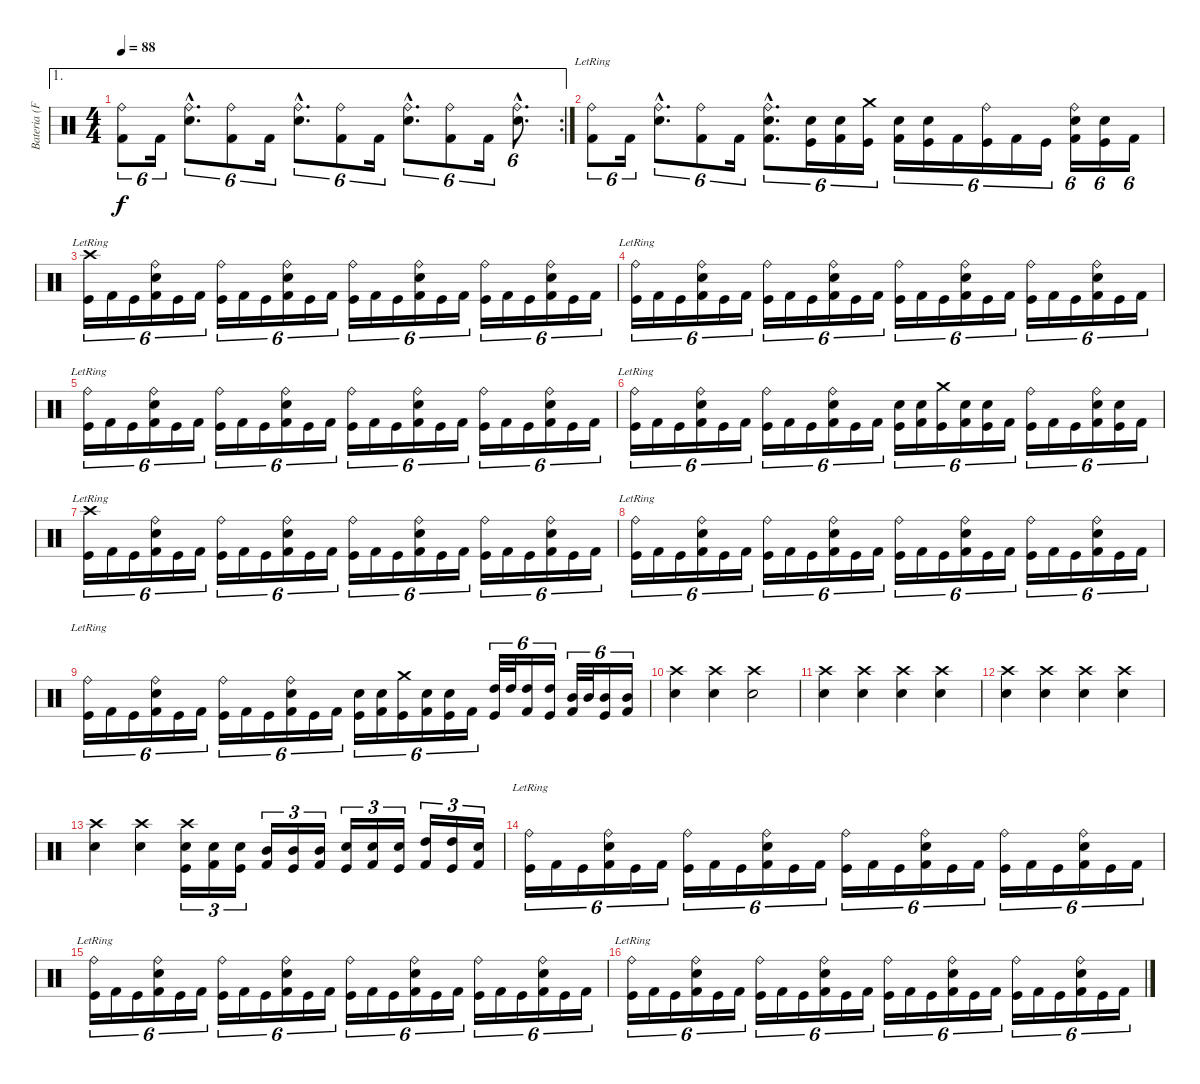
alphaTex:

\track ("Bateria (Fernando Scarcella)" "Bateria (F") {instrument percussion}
\staff {score}
\articulation defaults
\ae 1
\rc 2
\ts (4 4)
\tempo 88
\clef neutral
\ks c
("Ride (bell)" "Kick (hit) 2").8{tu (6 4) dy f} "Kick (hit) 2".16{tu (6 4)} ("Ride (bell)"{hac} "Snare (hit) 2"{hac}).8{d tu (6 4)} ("Ride (bell)" "Kick (hit) 2").8{tu (6 4)} "Kick (hit) 2".16{tu (6 4)} ("Ride (bell)"{hac} "Snare (hit) 2"{hac}).8{d tu (6 4)} ("Ride (bell)" "Kick (hit) 2").8{tu (6 4)} "Kick (hit) 2".16{tu (6 4)} ("Ride (bell)"{hac} "Snare (hit) 2"{hac}).8{d tu (6 4)} ("Ride (bell)" "Kick (hit) 2").8{tu (6 4)} "Kick (hit) 2".16{tu (6 4)} ("Ride (bell)"{hac} "Snare (hit) 2"{hac}).8{d tu (6 4)} |
("Ride (bell)"{lr} "Kick (hit) 2").8{tu (6 4)} "Kick (hit) 2".16{tu (6 4)} ("Ride (bell)"{hac} "Snare (hit) 2"{hac}).8{d tu (6 4)} ("Ride (bell)" "Kick (hit) 2").8{tu (6 4)} "Kick (hit) 2".16{tu (6 4)} ("Ride (bell)"{hac} "Snare (hit) 2"{hac} "Kick (hit) 2"{hac}).8{d tu (6 4)} ("Snare (hit) 2" "Kick (hit)").16{tu (6 4)} ("Snare (hit) 2" "Kick (hit) 2").16{tu (6 4)} ("Crash medium (hit)" "Kick (hit)").16{tu (6 4)} ("Snare (hit) 2" "Kick (hit) 2").16{tu (6 4)} ("Snare (hit) 2" "Kick (hit)").16{tu (6 4)} "Kick (hit) 2".16{tu (6 4)} ("Ride (bell)" "Kick (hit)").16{tu (6 4)} "Kick (hit) 2".16{tu (6 4)} "Kick (hit)".16{tu (6 4)} ("Ride (bell)" "Snare (hit) 2" "Kick (hit) 2").16{tu (6 4)} ("Snare (hit) 2" "Kick (hit)").16{tu (6 4)} "Kick (hit) 2".16{tu (6 4)} |
("Crash high (hit)"{lr} "Kick (hit)").16{tu (6 4)} "Kick (hit) 2".16{tu (6 4)} "Kick (hit)".16{tu (6 4)} ("Ride (bell)" "Snare (hit) 2" "Kick (hit) 2").16{tu (6 4)} "Kick (hit)".16{tu (6 4)} "Kick (hit) 2".16{tu (6 4)} ("Ride (bell)" "Kick (hit)").16{tu (6 4)} "Kick (hit) 2".16{tu (6 4)} "Kick (hit)".16{tu (6 4)} ("Ride (bell)" "Snare (hit) 2" "Kick (hit) 2").16{tu (6 4)} "Kick (hit)".16{tu (6 4)} "Kick (hit) 2".16{tu (6 4)} ("Ride (bell)" "Kick (hit)").16{tu (6 4)} "Kick (hit) 2".16{tu (6 4)} "Kick (hit)".16{tu (6 4)} ("Ride (bell)" "Snare (hit) 2" "Kick (hit) 2").16{tu (6 4)} "Kick (hit)".16{tu (6 4)} "Kick (hit) 2".16{tu (6 4)} ("Ride (bell)" "Kick (hit)").16{tu (6 4)} "Kick (hit) 2".16{tu (6 4)} "Kick (hit)".16{tu (6 4)} ("Ride (bell)" "Snare (hit) 2" "Kick (hit) 2").16{tu (6 4)} "Kick (hit)".16{tu (6 4)} "Kick (hit) 2".16{tu (6 4)} |
("Ride (bell)"{lr} "Kick (hit)").16{tu (6 4)} "Kick (hit) 2".16{tu (6 4)} "Kick (hit)".16{tu (6 4)} ("Ride (bell)" "Snare (hit) 2" "Kick (hit) 2").16{tu (6 4)} "Kick (hit)".16{tu (6 4)} "Kick (hit) 2".16{tu (6 4)} ("Ride (bell)" "Kick (hit)").16{tu (6 4)} "Kick (hit) 2".16{tu (6 4)} "Kick (hit)".16{tu (6 4)} ("Ride (bell)" "Snare (hit) 2" "Kick (hit) 2").16{tu (6 4)} "Kick (hit)".16{tu (6 4)} "Kick (hit) 2".16{tu (6 4)} ("Ride (bell)" "Kick (hit)").16{tu (6 4)} "Kick (hit) 2".16{tu (6 4)} "Kick (hit)".16{tu (6 4)} ("Ride (bell)" "Snare (hit) 2" "Kick (hit) 2").16{tu (6 4)} "Kick (hit)".16{tu (6 4)} "Kick (hit) 2".16{tu (6 4)} ("Ride (bell)" "Kick (hit)").16{tu (6 4)} "Kick (hit) 2".16{tu (6 4)} "Kick (hit)".16{tu (6 4)} ("Ride (bell)" "Snare (hit) 2" "Kick (hit) 2").16{tu (6 4)} "Kick (hit)".16{tu (6 4)} "Kick (hit) 2".16{tu (6 4)} |
("Ride (bell)"{lr} "Kick (hit)").16{tu (6 4)} "Kick (hit) 2".16{tu (6 4)} "Kick (hit)".16{tu (6 4)} ("Ride (bell)" "Snare (hit) 2" "Kick (hit) 2").16{tu (6 4)} "Kick (hit)".16{tu (6 4)} "Kick (hit) 2".16{tu (6 4)} ("Ride (bell)" "Kick (hit)").16{tu (6 4)} "Kick (hit) 2".16{tu (6 4)} "Kick (hit)".16{tu (6 4)} ("Ride (bell)" "Snare (hit) 2" "Kick (hit) 2").16{tu (6 4)} "Kick (hit)".16{tu (6 4)} "Kick (hit) 2".16{tu (6 4)} ("Ride (bell)" "Kick (hit)").16{tu (6 4)} "Kick (hit) 2".16{tu (6 4)} "Kick (hit)".16{tu (6 4)} ("Ride (bell)" "Snare (hit) 2" "Kick (hit) 2").16{tu (6 4)} "Kick (hit)".16{tu (6 4)} "Kick (hit) 2".16{tu (6 4)} ("Ride (bell)" "Kick (hit)").16{tu (6 4)} "Kick (hit) 2".16{tu (6 4)} "Kick (hit)".16{tu (6 4)} ("Ride (bell)" "Snare (hit) 2" "Kick (hit) 2").16{tu (6 4)} "Kick (hit)".16{tu (6 4)} "Kick (hit) 2".16{tu (6 4)} |
("Ride (bell)"{lr} "Kick (hit)").16{tu (6 4)} "Kick (hit) 2".16{tu (6 4)} "Kick (hit)".16{tu (6 4)} ("Ride (bell)" "Snare (hit) 2" "Kick (hit) 2").16{tu (6 4)} "Kick (hit)".16{tu (6 4)} "Kick (hit) 2".16{tu (6 4)} ("Ride (bell)" "Kick (hit)").16{tu (6 4)} "Kick (hit) 2".16{tu (6 4)} "Kick (hit)".16{tu (6 4)} ("Ride (bell)" "Snare (hit) 2" "Kick (hit) 2").16{tu (6 4)} "Kick (hit)".16{tu (6 4)} "Kick (hit) 2".16{tu (6 4)} ("Snare (hit) 2" "Kick (hit)").16{tu (6 4)} ("Snare (hit) 2" "Kick (hit) 2").16{tu (6 4)} ("Crash medium (hit)" "Kick (hit)").16{tu (6 4)} ("Snare (hit) 2" "Kick (hit) 2").16{tu (6 4)} ("Snare (hit) 2" "Kick (hit)").16{tu (6 4)} "Kick (hit) 2".16{tu (6 4)} ("Ride (bell)" "Kick (hit)").16{tu (6 4)} "Kick (hit) 2".16{tu (6 4)} "Kick (hit)".16{tu (6 4)} ("Ride (bell)" "Snare (hit) 2" "Kick (hit) 2").16{tu (6 4)} ("Snare (hit) 2" "Kick (hit)").16{tu (6 4)} "Kick (hit) 2".16{tu (6 4)} |
("Crash high (hit)"{lr} "Kick (hit)").16{tu (6 4)} "Kick (hit) 2".16{tu (6 4)} "Kick (hit)".16{tu (6 4)} ("Ride (bell)" "Snare (hit) 2" "Kick (hit) 2").16{tu (6 4)} "Kick (hit)".16{tu (6 4)} "Kick (hit) 2".16{tu (6 4)} ("Ride (bell)" "Kick (hit)").16{tu (6 4)} "Kick (hit) 2".16{tu (6 4)} "Kick (hit)".16{tu (6 4)} ("Ride (bell)" "Snare (hit) 2" "Kick (hit) 2").16{tu (6 4)} "Kick (hit)".16{tu (6 4)} "Kick (hit) 2".16{tu (6 4)} ("Ride (bell)" "Kick (hit)").16{tu (6 4)} "Kick (hit) 2".16{tu (6 4)} "Kick (hit)".16{tu (6 4)} ("Ride (bell)" "Snare (hit) 2" "Kick (hit) 2").16{tu (6 4)} "Kick (hit)".16{tu (6 4)} "Kick (hit) 2".16{tu (6 4)} ("Ride (bell)" "Kick (hit)").16{tu (6 4)} "Kick (hit) 2".16{tu (6 4)} "Kick (hit)".16{tu (6 4)} ("Ride (bell)" "Snare (hit) 2" "Kick (hit) 2").16{tu (6 4)} "Kick (hit)".16{tu (6 4)} "Kick (hit) 2".16{tu (6 4)} |
("Ride (bell)"{lr} "Kick (hit)").16{tu (6 4)} "Kick (hit) 2".16{tu (6 4)} "Kick (hit)".16{tu (6 4)} ("Ride (bell)" "Snare (hit) 2" "Kick (hit) 2").16{tu (6 4)} "Kick (hit)".16{tu (6 4)} "Kick (hit) 2".16{tu (6 4)} ("Ride (bell)" "Kick (hit)").16{tu (6 4)} "Kick (hit) 2".16{tu (6 4)} "Kick (hit)".16{tu (6 4)} ("Ride (bell)" "Snare (hit) 2" "Kick (hit) 2").16{tu (6 4)} "Kick (hit)".16{tu (6 4)} "Kick (hit) 2".16{tu (6 4)} ("Ride (bell)" "Kick (hit)").16{tu (6 4)} "Kick (hit) 2".16{tu (6 4)} "Kick (hit)".16{tu (6 4)} ("Ride (bell)" "Snare (hit) 2" "Kick (hit) 2").16{tu (6 4)} "Kick (hit)".16{tu (6 4)} "Kick (hit) 2".16{tu (6 4)} ("Ride (bell)" "Kick (hit)").16{tu (6 4)} "Kick (hit) 2".16{tu (6 4)} "Kick (hit)".16{tu (6 4)} ("Ride (bell)" "Snare (hit) 2" "Kick (hit) 2").16{tu (6 4)} "Kick (hit)".16{tu (6 4)} "Kick (hit) 2".16{tu (6 4)} |
("Ride (bell)"{lr} "Kick (hit)").16{tu (6 4)} "Kick (hit) 2".16{tu (6 4)} "Kick (hit)".16{tu (6 4)} ("Ride (bell)" "Snare (hit) 2" "Kick (hit) 2").16{tu (6 4)} "Kick (hit)".16{tu (6 4)} "Kick (hit) 2".16{tu (6 4)} ("Ride (bell)" "Kick (hit)").16{tu (6 4)} "Kick (hit) 2".16{tu (6 4)} "Kick (hit)".16{tu (6 4)} ("Ride (bell)" "Snare (hit) 2" "Kick (hit) 2").16{tu (6 4)} "Kick (hit)".16{tu (6 4)} "Kick (hit) 2".16{tu (6 4)} ("Snare (hit) 2" "Kick (hit)").16{tu (6 4)} ("Snare (hit) 2" "Kick (hit) 2").16{tu (6 4)} ("Crash medium (hit)" "Kick (hit)").16{tu (6 4)} ("Snare (hit) 2" "Kick (hit) 2").16{tu (6 4)} ("Snare (hit) 2" "Kick (hit)").16{tu (6 4)} "Kick (hit) 2".16{tu (6 4)} ("High Tom (hit)" "Kick (hit)").32{tu (6 4)} "High Tom (hit)".32{tu (6 4)} ("High Tom (hit)" "Kick (hit) 2").16{tu (6 4)} ("High Tom (hit)" "Kick (hit)").16{tu (6 4)} ("Mid Tom (hit)" "Kick (hit) 2").32{tu (6 4)} "Mid Tom (hit)".32{tu (6 4)} ("Mid Tom (hit)" "Kick (hit)").16{tu (6 4)} ("Mid Tom (hit)" "Kick (hit) 2").16{tu (6 4)} |
("Crash high (hit)" "Snare (hit) 2").4 ("Crash high (hit)" "Snare (hit) 2").4 ("Crash high (hit)" "Snare (hit) 2").2 |
("Crash high (hit)" "Snare (hit) 2").4 ("Crash high (hit)" "Snare (hit) 2").4 ("Crash high (hit)" "Snare (hit) 2").4 ("Crash high (hit)" "Snare (hit) 2").4 |
("Crash high (hit)" "Snare (hit) 2").4 ("Crash high (hit)" "Snare (hit) 2").4 ("Crash high (hit)" "Snare (hit) 2").4 ("Crash high (hit)" "Snare (hit) 2").4 |
("Crash high (hit)" "Snare (hit) 2").4 ("Crash high (hit)" "Snare (hit) 2").4 ("Crash high (hit)" "Snare (hit) 2" "Kick (hit)").16{tu (3 2)} ("Snare (hit) 2" "Kick (hit) 2").16{tu (3 2)} ("Snare (hit) 2" "Kick (hit)").16{tu (3 2)} ("Mid Tom (hit)" "Kick (hit) 2").16{tu (3 2)} ("Mid Tom (hit)" "Kick (hit)").16{tu (3 2)} ("Mid Tom (hit)" "Kick (hit) 2").16{tu (3 2)} ("Snare (hit) 2" "Kick (hit)").16{tu (3 2)} ("Snare (hit) 2" "Kick (hit) 2").16{tu (3 2)} ("Snare (hit) 2" "Kick (hit)").16{tu (3 2)} ("High Tom (hit)" "Kick (hit) 2").16{tu (3 2)} ("High Tom (hit)" "Kick (hit)").16{tu (3 2)} ("Snare (hit) 2" "Kick (hit) 2").16{tu (3 2)} |
("Ride (bell)"{lr} "Kick (hit)").16{tu (6 4)} "Kick (hit) 2".16{tu (6 4)} "Kick (hit)".16{tu (6 4)} ("Ride (bell)" "Snare (hit) 2" "Kick (hit) 2").16{tu (6 4)} "Kick (hit)".16{tu (6 4)} "Kick (hit) 2".16{tu (6 4)} ("Ride (bell)" "Kick (hit)").16{tu (6 4)} "Kick (hit) 2".16{tu (6 4)} "Kick (hit)".16{tu (6 4)} ("Ride (bell)" "Snare (hit) 2" "Kick (hit) 2").16{tu (6 4)} "Kick (hit)".16{tu (6 4)} "Kick (hit) 2".16{tu (6 4)} ("Ride (bell)" "Kick (hit)").16{tu (6 4)} "Kick (hit) 2".16{tu (6 4)} "Kick (hit)".16{tu (6 4)} ("Ride (bell)" "Snare (hit) 2" "Kick (hit) 2").16{tu (6 4)} "Kick (hit)".16{tu (6 4)} "Kick (hit) 2".16{tu (6 4)} ("Ride (bell)" "Kick (hit)").16{tu (6 4)} "Kick (hit) 2".16{tu (6 4)} "Kick (hit)".16{tu (6 4)} ("Ride (bell)" "Snare (hit) 2" "Kick (hit) 2").16{tu (6 4)} "Kick (hit)".16{tu (6 4)} "Kick (hit) 2".16{tu (6 4)} |
("Ride (bell)"{lr} "Kick (hit)").16{tu (6 4)} "Kick (hit) 2".16{tu (6 4)} "Kick (hit)".16{tu (6 4)} ("Ride (bell)" "Snare (hit) 2" "Kick (hit) 2").16{tu (6 4)} "Kick (hit)".16{tu (6 4)} "Kick (hit) 2".16{tu (6 4)} ("Ride (bell)" "Kick (hit)").16{tu (6 4)} "Kick (hit) 2".16{tu (6 4)} "Kick (hit)".16{tu (6 4)} ("Ride (bell)" "Snare (hit) 2" "Kick (hit) 2").16{tu (6 4)} "Kick (hit)".16{tu (6 4)} "Kick (hit) 2".16{tu (6 4)} ("Ride (bell)" "Kick (hit)").16{tu (6 4)} "Kick (hit) 2".16{tu (6 4)} "Kick (hit)".16{tu (6 4)} ("Ride (bell)" "Snare (hit) 2" "Kick (hit) 2").16{tu (6 4)} "Kick (hit)".16{tu (6 4)} "Kick (hit) 2".16{tu (6 4)} ("Ride (bell)" "Kick (hit)").16{tu (6 4)} "Kick (hit) 2".16{tu (6 4)} "Kick (hit)".16{tu (6 4)} ("Ride (bell)" "Snare (hit) 2" "Kick (hit) 2").16{tu (6 4)} "Kick (hit)".16{tu (6 4)} "Kick (hit) 2".16{tu (6 4)} |
("Ride (bell)"{lr} "Kick (hit)").16{tu (6 4)} "Kick (hit) 2".16{tu (6 4)} "Kick (hit)".16{tu (6 4)} ("Ride (bell)" "Snare (hit) 2" "Kick (hit) 2").16{tu (6 4)} "Kick (hit)".16{tu (6 4)} "Kick (hit) 2".16{tu (6 4)} ("Ride (bell)" "Kick (hit)").16{tu (6 4)} "Kick (hit) 2".16{tu (6 4)} "Kick (hit)".16{tu (6 4)} ("Ride (bell)" "Snare (hit) 2" "Kick (hit) 2").16{tu (6 4)} "Kick (hit)".16{tu (6 4)} "Kick (hit) 2".16{tu (6 4)} ("Ride (bell)" "Kick (hit)").16{tu (6 4)} "Kick (hit) 2".16{tu (6 4)} "Kick (hit)".16{tu (6 4)} ("Ride (bell)" "Snare (hit) 2" "Kick (hit) 2").16{tu (6 4)} "Kick (hit)".16{tu (6 4)} "Kick (hit) 2".16{tu (6 4)} ("Ride (bell)" "Kick (hit)").16{tu (6 4)} "Kick (hit) 2".16{tu (6 4)} "Kick (hit)".16{tu (6 4)} ("Ride (bell)" "Snare (hit) 2" "Kick (hit) 2").16{tu (6 4)} "Kick (hit)".16{tu (6 4)} "Kick (hit) 2".16{tu (6 4)}
